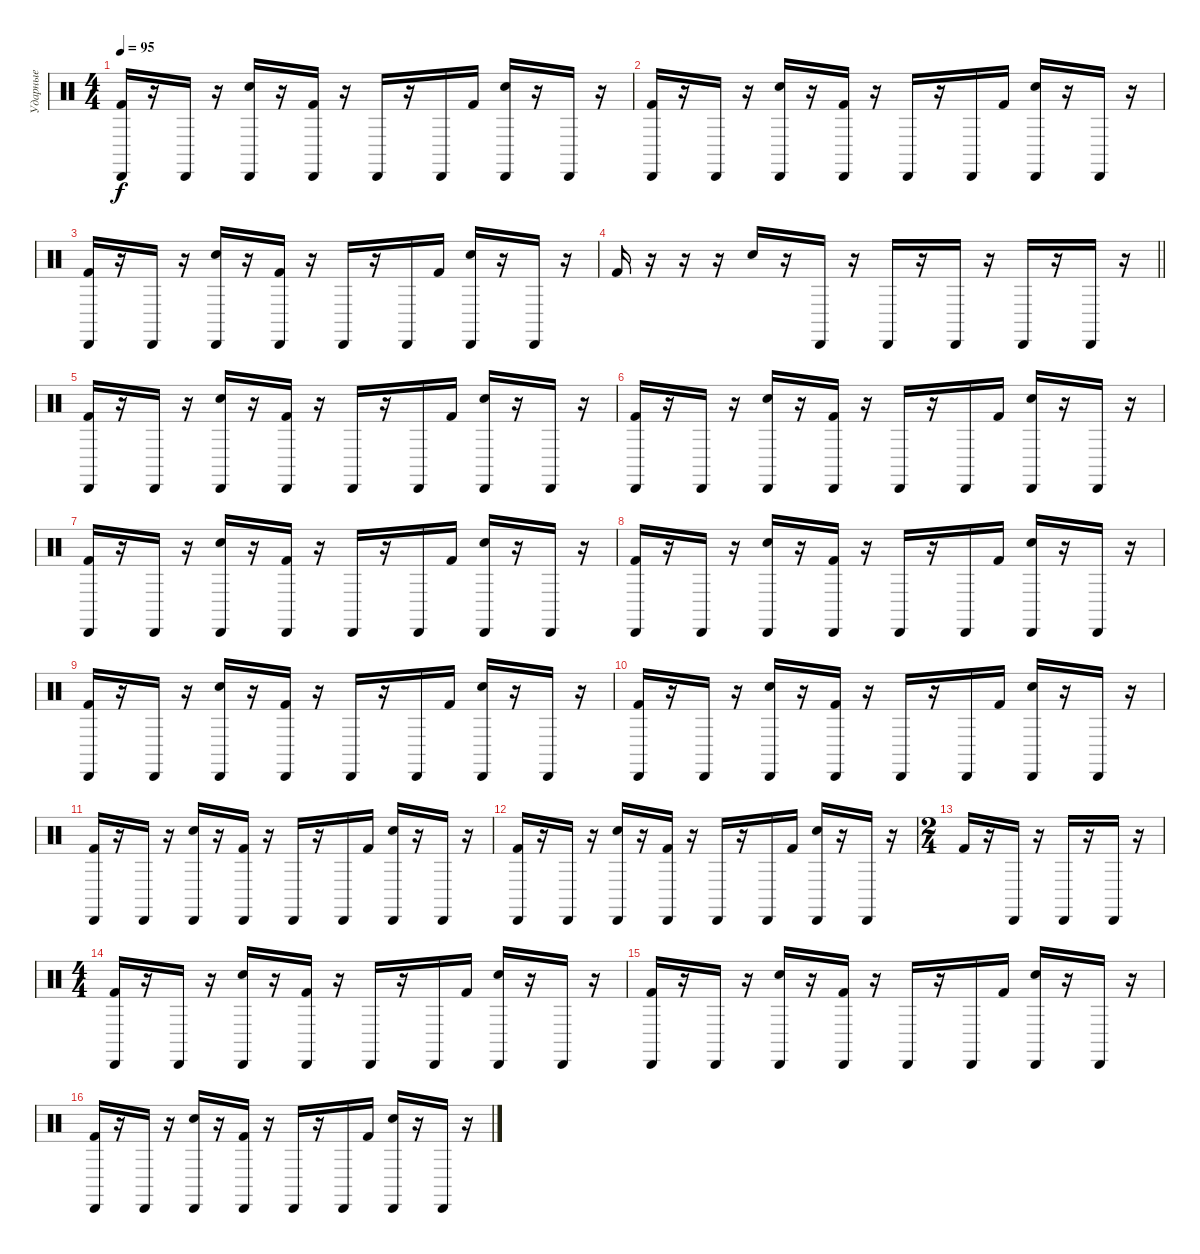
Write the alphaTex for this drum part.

\track ("Ударные" "Ударные") {instrument percussion}
\staff {score}
\articulation defaults
\ts (4 4)
\tempo 95
\clef neutral
\ks c
("Cabasa (hit)" "Kick (hit) 2").16{dy f} r.16 "Cabasa (hit)".16 r.16 ("Cabasa (hit)" "Snare (hit) 2").16 r.16 ("Cabasa (hit)" "Kick (hit) 2").16 r.16 "Cabasa (hit)".16 r.16 "Cabasa (hit)".16 "Kick (hit) 2".16 ("Cabasa (hit)" "Snare (hit) 2").16 r.16 "Cabasa (hit)".16 r.16 |
("Cabasa (hit)" "Kick (hit) 2").16 r.16 "Cabasa (hit)".16 r.16 ("Cabasa (hit)" "Snare (hit) 2").16 r.16 ("Cabasa (hit)" "Kick (hit) 2").16 r.16 "Cabasa (hit)".16 r.16 "Cabasa (hit)".16 "Kick (hit) 2".16 ("Cabasa (hit)" "Snare (hit) 2").16 r.16 "Cabasa (hit)".16 r.16 |
("Cabasa (hit)" "Kick (hit) 2").16 r.16 "Cabasa (hit)".16 r.16 ("Cabasa (hit)" "Snare (hit) 2").16 r.16 ("Cabasa (hit)" "Kick (hit) 2").16 r.16 "Cabasa (hit)".16 r.16 "Cabasa (hit)".16 "Kick (hit) 2".16 ("Cabasa (hit)" "Snare (hit) 2").16 r.16 "Cabasa (hit)".16 r.16 |
\barLineRight lightlight "Kick (hit) 2".16
r.16 r.16 r.16 "Snare (hit) 2".16 r.16 "Cabasa (hit)".16 r.16 "Cabasa (hit)".16 r.16 "Cabasa (hit)".16 r.16 "Cabasa (hit)".16 r.16 "Cabasa (hit)".16 r.16 |
("Cabasa (hit)" "Kick (hit) 2").16 r.16 "Cabasa (hit)".16 r.16 ("Cabasa (hit)" "Snare (hit) 2").16 r.16 ("Cabasa (hit)" "Kick (hit) 2").16 r.16 "Cabasa (hit)".16 r.16 "Cabasa (hit)".16 "Kick (hit) 2".16 ("Cabasa (hit)" "Snare (hit) 2").16 r.16 "Cabasa (hit)".16 r.16 |
("Cabasa (hit)" "Kick (hit) 2").16 r.16 "Cabasa (hit)".16 r.16 ("Cabasa (hit)" "Snare (hit) 2").16 r.16 ("Cabasa (hit)" "Kick (hit) 2").16 r.16 "Cabasa (hit)".16 r.16 "Cabasa (hit)".16 "Kick (hit) 2".16 ("Cabasa (hit)" "Snare (hit) 2").16 r.16 "Cabasa (hit)".16 r.16 |
("Cabasa (hit)" "Kick (hit) 2").16 r.16 "Cabasa (hit)".16 r.16 ("Cabasa (hit)" "Snare (hit) 2").16 r.16 ("Cabasa (hit)" "Kick (hit) 2").16 r.16 "Cabasa (hit)".16 r.16 "Cabasa (hit)".16 "Kick (hit) 2".16 ("Cabasa (hit)" "Snare (hit) 2").16 r.16 "Cabasa (hit)".16 r.16 |
("Cabasa (hit)" "Kick (hit) 2").16 r.16 "Cabasa (hit)".16 r.16 ("Cabasa (hit)" "Snare (hit) 2").16 r.16 ("Cabasa (hit)" "Kick (hit) 2").16 r.16 "Cabasa (hit)".16 r.16 "Cabasa (hit)".16 "Kick (hit) 2".16 ("Cabasa (hit)" "Snare (hit) 2").16 r.16 "Cabasa (hit)".16 r.16 |
("Cabasa (hit)" "Kick (hit) 2").16 r.16 "Cabasa (hit)".16 r.16 ("Cabasa (hit)" "Snare (hit) 2").16 r.16 ("Cabasa (hit)" "Kick (hit) 2").16 r.16 "Cabasa (hit)".16 r.16 "Cabasa (hit)".16 "Kick (hit) 2".16 ("Cabasa (hit)" "Snare (hit) 2").16 r.16 "Cabasa (hit)".16 r.16 |
("Cabasa (hit)" "Kick (hit) 2").16 r.16 "Cabasa (hit)".16 r.16 ("Cabasa (hit)" "Snare (hit) 2").16 r.16 ("Cabasa (hit)" "Kick (hit) 2").16 r.16 "Cabasa (hit)".16 r.16 "Cabasa (hit)".16 "Kick (hit) 2".16 ("Cabasa (hit)" "Snare (hit) 2").16 r.16 "Cabasa (hit)".16 r.16 |
("Cabasa (hit)" "Kick (hit) 2").16 r.16 "Cabasa (hit)".16 r.16 ("Cabasa (hit)" "Snare (hit) 2").16 r.16 ("Cabasa (hit)" "Kick (hit) 2").16 r.16 "Cabasa (hit)".16 r.16 "Cabasa (hit)".16 "Kick (hit) 2".16 ("Cabasa (hit)" "Snare (hit) 2").16 r.16 "Cabasa (hit)".16 r.16 |
("Cabasa (hit)" "Kick (hit) 2").16 r.16 "Cabasa (hit)".16 r.16 ("Cabasa (hit)" "Snare (hit) 2").16 r.16 ("Cabasa (hit)" "Kick (hit) 2").16 r.16 "Cabasa (hit)".16 r.16 "Cabasa (hit)".16 "Kick (hit) 2".16 ("Cabasa (hit)" "Snare (hit) 2").16 r.16 "Cabasa (hit)".16 r.16 |
\ts (2 4)
"Kick (hit) 2".16 r.16 "Cabasa (hit)".16 r.16 "Cabasa (hit)".16 r.16 "Cabasa (hit)".16 r.16 |
\ts (4 4)
("Cabasa (hit)" "Kick (hit) 2").16 r.16 "Cabasa (hit)".16 r.16 ("Cabasa (hit)" "Snare (hit) 2").16 r.16 ("Cabasa (hit)" "Kick (hit) 2").16 r.16 "Cabasa (hit)".16 r.16 "Cabasa (hit)".16 "Kick (hit) 2".16 ("Cabasa (hit)" "Snare (hit) 2").16 r.16 "Cabasa (hit)".16 r.16 |
("Cabasa (hit)" "Kick (hit) 2").16 r.16 "Cabasa (hit)".16 r.16 ("Cabasa (hit)" "Snare (hit) 2").16 r.16 ("Cabasa (hit)" "Kick (hit) 2").16 r.16 "Cabasa (hit)".16 r.16 "Cabasa (hit)".16 "Kick (hit) 2".16 ("Cabasa (hit)" "Snare (hit) 2").16 r.16 "Cabasa (hit)".16 r.16 |
("Cabasa (hit)" "Kick (hit) 2").16 r.16 "Cabasa (hit)".16 r.16 ("Cabasa (hit)" "Snare (hit) 2").16 r.16 ("Cabasa (hit)" "Kick (hit) 2").16 r.16 "Cabasa (hit)".16 r.16 "Cabasa (hit)".16 "Kick (hit) 2".16 ("Cabasa (hit)" "Snare (hit) 2").16 r.16 "Cabasa (hit)".16 r.16
